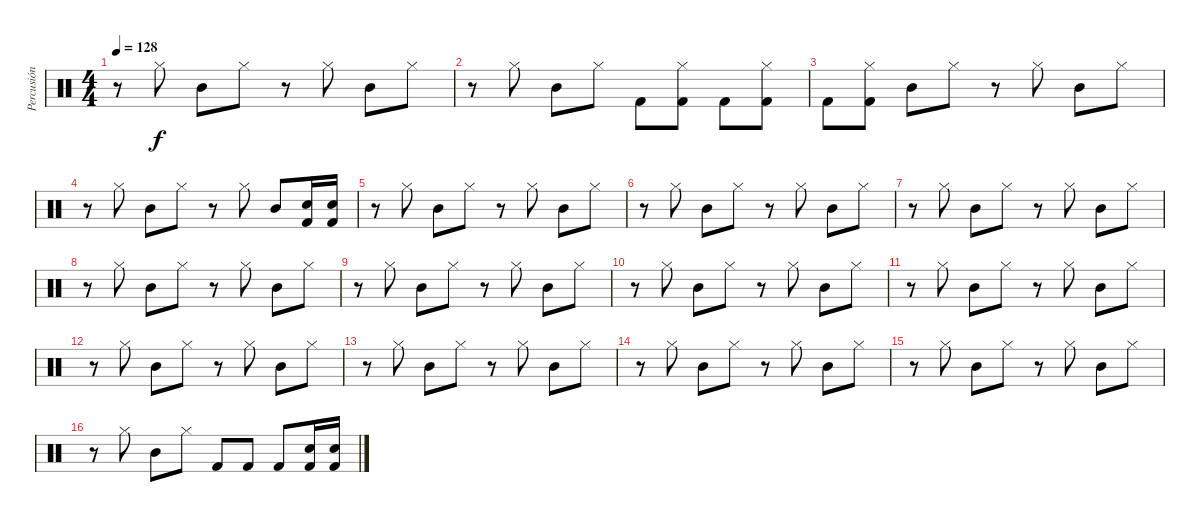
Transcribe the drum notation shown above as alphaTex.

\track ("Percusión" "Percusión") {instrument percussion}
\staff {score}
\articulation defaults
\ts (4 4)
\tempo 128
\clef neutral
\ks c
r.8{dy f} "Hi-Hat (closed)".8 "Mid Tom (hit)".8 "Hi-Hat (closed)".8 r.8 "Hi-Hat (closed)".8 "Mid Tom (hit)".8 "Hi-Hat (closed)".8 |
r.8 "Hi-Hat (closed)".8 "Mid Tom (hit)".8 "Hi-Hat (closed)".8 "Kick (hit) 2".8 ("Hi-Hat (closed)" "Kick (hit) 2").8 "Kick (hit) 2".8 ("Hi-Hat (closed)" "Kick (hit) 2").8 |
"Kick (hit) 2".8 ("Hi-Hat (closed)" "Kick (hit) 2").8 "Mid Tom (hit)".8 "Hi-Hat (closed)".8 r.8 "Hi-Hat (closed)".8 "Mid Tom (hit)".8 "Hi-Hat (closed)".8 |
r.8 "Hi-Hat (closed)".8 "Mid Tom (hit)".8 "Hi-Hat (closed)".8 r.8 "Hi-Hat (closed)".8 "Mid Tom (hit)".8 ("Electric Snare (hit)" "Kick (hit) 2").16 ("Electric Snare (hit)" "Kick (hit) 2").16 |
r.8 "Hi-Hat (closed)".8 "Mid Tom (hit)".8 "Hi-Hat (closed)".8 r.8 "Hi-Hat (closed)".8 "Mid Tom (hit)".8 "Hi-Hat (closed)".8 |
r.8 "Hi-Hat (closed)".8 "Mid Tom (hit)".8 "Hi-Hat (closed)".8 r.8 "Hi-Hat (closed)".8 "Mid Tom (hit)".8 "Hi-Hat (closed)".8 |
r.8 "Hi-Hat (closed)".8 "Mid Tom (hit)".8 "Hi-Hat (closed)".8 r.8 "Hi-Hat (closed)".8 "Mid Tom (hit)".8 "Hi-Hat (closed)".8 |
r.8 "Hi-Hat (closed)".8 "Mid Tom (hit)".8 "Hi-Hat (closed)".8 r.8 "Hi-Hat (closed)".8 "Mid Tom (hit)".8 "Hi-Hat (closed)".8 |
r.8 "Hi-Hat (closed)".8 "Mid Tom (hit)".8 "Hi-Hat (closed)".8 r.8 "Hi-Hat (closed)".8 "Mid Tom (hit)".8 "Hi-Hat (closed)".8 |
r.8 "Hi-Hat (closed)".8 "Mid Tom (hit)".8 "Hi-Hat (closed)".8 r.8 "Hi-Hat (closed)".8 "Mid Tom (hit)".8 "Hi-Hat (closed)".8 |
r.8 "Hi-Hat (closed)".8 "Mid Tom (hit)".8 "Hi-Hat (closed)".8 r.8 "Hi-Hat (closed)".8 "Mid Tom (hit)".8 "Hi-Hat (closed)".8 |
r.8 "Hi-Hat (closed)".8 "Mid Tom (hit)".8 "Hi-Hat (closed)".8 r.8 "Hi-Hat (closed)".8 "Mid Tom (hit)".8 "Hi-Hat (closed)".8 |
r.8 "Hi-Hat (closed)".8 "Mid Tom (hit)".8 "Hi-Hat (closed)".8 r.8 "Hi-Hat (closed)".8 "Mid Tom (hit)".8 "Hi-Hat (closed)".8 |
r.8 "Hi-Hat (closed)".8 "Mid Tom (hit)".8 "Hi-Hat (closed)".8 r.8 "Hi-Hat (closed)".8 "Mid Tom (hit)".8 "Hi-Hat (closed)".8 |
r.8 "Hi-Hat (closed)".8 "Mid Tom (hit)".8 "Hi-Hat (closed)".8 r.8 "Hi-Hat (closed)".8 "Mid Tom (hit)".8 "Hi-Hat (closed)".8 |
r.8 "Hi-Hat (closed)".8 "Mid Tom (hit)".8 "Hi-Hat (closed)".8 "Kick (hit) 2".8 "Kick (hit) 2".8 "Kick (hit) 2".8 ("Electric Snare (hit)" "Kick (hit) 2").16 ("Electric Snare (hit)" "Kick (hit) 2").16
